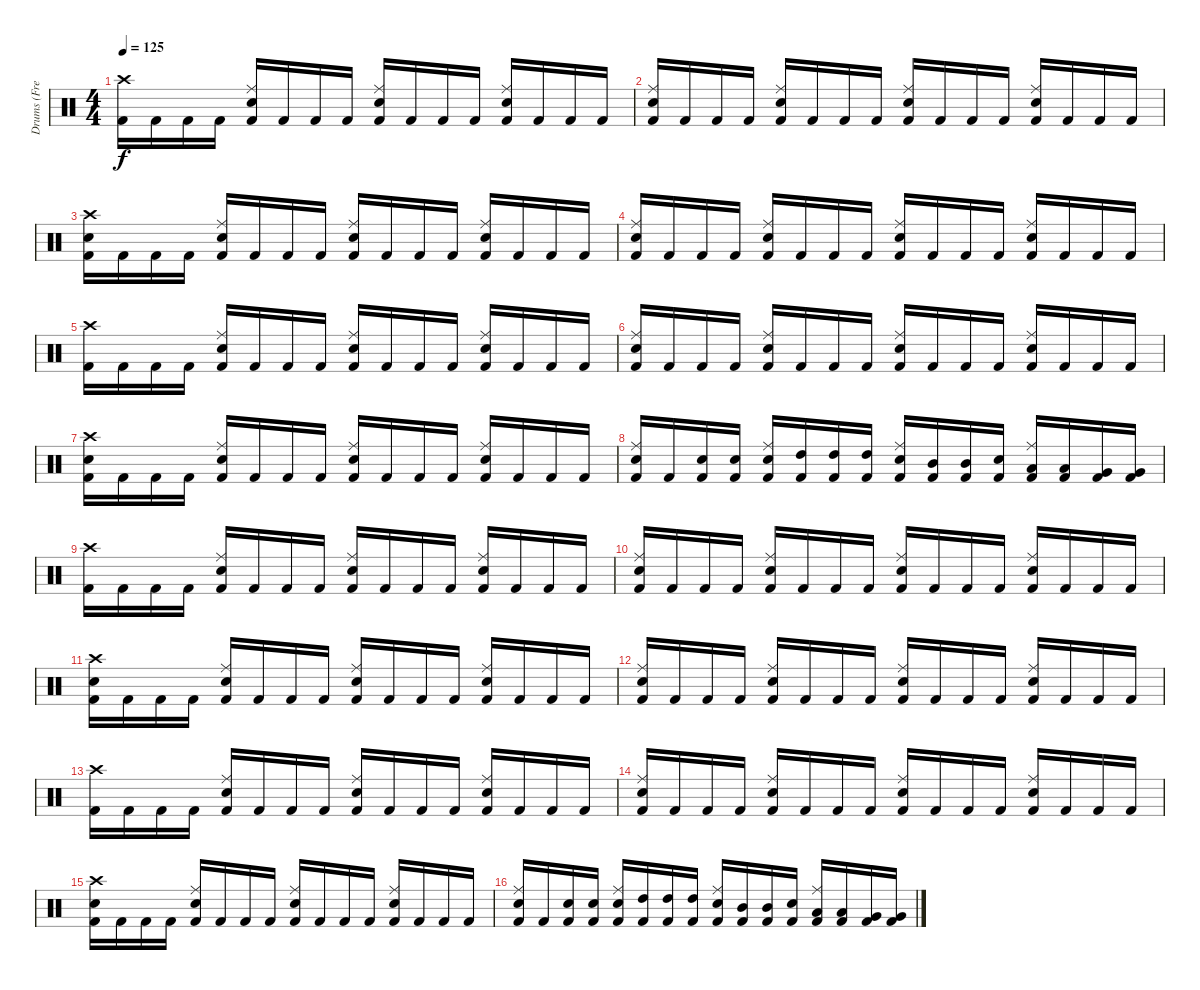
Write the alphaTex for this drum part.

\track ("Drums (Fredrik Andersson)" "Drums (Fre") {instrument percussion}
\staff {score}
\articulation defaults
\ts (4 4)
\tempo 125
\clef neutral
\ks c
("Crash high (hit)" "Kick (hit) 2").16{dy f} "Kick (hit) 2".16 "Kick (hit) 2".16 "Kick (hit) 2".16 ("Ride (middle)" "Snare (hit) 2" "Kick (hit) 2").16 "Kick (hit) 2".16 "Kick (hit) 2".16 "Kick (hit) 2".16 ("Ride (middle)" "Snare (hit) 2" "Kick (hit) 2").16 "Kick (hit) 2".16 "Kick (hit) 2".16 "Kick (hit) 2".16 ("Ride (middle)" "Snare (hit) 2" "Kick (hit) 2").16 "Kick (hit) 2".16 "Kick (hit) 2".16 "Kick (hit) 2".16 |
("Ride (middle)" "Snare (hit) 2" "Kick (hit) 2").16 "Kick (hit) 2".16 "Kick (hit) 2".16 "Kick (hit) 2".16 ("Ride (middle)" "Snare (hit) 2" "Kick (hit) 2").16 "Kick (hit) 2".16 "Kick (hit) 2".16 "Kick (hit) 2".16 ("Ride (middle)" "Snare (hit) 2" "Kick (hit) 2").16 "Kick (hit) 2".16 "Kick (hit) 2".16 "Kick (hit) 2".16 ("Ride (middle)" "Snare (hit) 2" "Kick (hit) 2").16 "Kick (hit) 2".16 "Kick (hit) 2".16 "Kick (hit) 2".16 |
("Crash high (hit)" "Snare (hit) 2" "Kick (hit) 2").16 "Kick (hit) 2".16 "Kick (hit) 2".16 "Kick (hit) 2".16 ("Ride (middle)" "Snare (hit) 2" "Kick (hit) 2").16 "Kick (hit) 2".16 "Kick (hit) 2".16 "Kick (hit) 2".16 ("Ride (middle)" "Snare (hit) 2" "Kick (hit) 2").16 "Kick (hit) 2".16 "Kick (hit) 2".16 "Kick (hit) 2".16 ("Ride (middle)" "Snare (hit) 2" "Kick (hit) 2").16 "Kick (hit) 2".16 "Kick (hit) 2".16 "Kick (hit) 2".16 |
("Ride (middle)" "Snare (hit) 2" "Kick (hit) 2").16 "Kick (hit) 2".16 "Kick (hit) 2".16 "Kick (hit) 2".16 ("Ride (middle)" "Snare (hit) 2" "Kick (hit) 2").16 "Kick (hit) 2".16 "Kick (hit) 2".16 "Kick (hit) 2".16 ("Ride (middle)" "Snare (hit) 2" "Kick (hit) 2").16 "Kick (hit) 2".16 "Kick (hit) 2".16 "Kick (hit) 2".16 ("Ride (middle)" "Snare (hit) 2" "Kick (hit) 2").16 "Kick (hit) 2".16 "Kick (hit) 2".16 "Kick (hit) 2".16 |
("Crash high (hit)" "Kick (hit) 2").16 "Kick (hit) 2".16 "Kick (hit) 2".16 "Kick (hit) 2".16 ("Ride (middle)" "Snare (hit) 2" "Kick (hit) 2").16 "Kick (hit) 2".16 "Kick (hit) 2".16 "Kick (hit) 2".16 ("Ride (middle)" "Snare (hit) 2" "Kick (hit) 2").16 "Kick (hit) 2".16 "Kick (hit) 2".16 "Kick (hit) 2".16 ("Ride (middle)" "Snare (hit) 2" "Kick (hit) 2").16 "Kick (hit) 2".16 "Kick (hit) 2".16 "Kick (hit) 2".16 |
("Ride (middle)" "Snare (hit) 2" "Kick (hit) 2").16 "Kick (hit) 2".16 "Kick (hit) 2".16 "Kick (hit) 2".16 ("Ride (middle)" "Snare (hit) 2" "Kick (hit) 2").16 "Kick (hit) 2".16 "Kick (hit) 2".16 "Kick (hit) 2".16 ("Ride (middle)" "Snare (hit) 2" "Kick (hit) 2").16 "Kick (hit) 2".16 "Kick (hit) 2".16 "Kick (hit) 2".16 ("Ride (middle)" "Snare (hit) 2" "Kick (hit) 2").16 "Kick (hit) 2".16 "Kick (hit) 2".16 "Kick (hit) 2".16 |
("Crash high (hit)" "Snare (hit) 2" "Kick (hit) 2").16 "Kick (hit) 2".16 "Kick (hit) 2".16 "Kick (hit) 2".16 ("Ride (middle)" "Snare (hit) 2" "Kick (hit) 2").16 "Kick (hit) 2".16 "Kick (hit) 2".16 "Kick (hit) 2".16 ("Ride (middle)" "Snare (hit) 2" "Kick (hit) 2").16 "Kick (hit) 2".16 "Kick (hit) 2".16 "Kick (hit) 2".16 ("Ride (middle)" "Snare (hit) 2" "Kick (hit) 2").16 "Kick (hit) 2".16 "Kick (hit) 2".16 "Kick (hit) 2".16 |
("Ride (middle)" "Snare (hit) 2" "Kick (hit) 2").16 "Kick (hit) 2".16 ("Snare (hit) 2" "Kick (hit) 2").16 ("Snare (hit) 2" "Kick (hit) 2").16 ("Ride (middle)" "Snare (hit) 2" "Kick (hit) 2").16 ("High Tom (hit)" "Kick (hit) 2").16 ("High Tom (hit)" "Kick (hit) 2").16 ("High Tom (hit)" "Kick (hit) 2").16 ("Ride (middle)" "Snare (hit) 2" "Kick (hit) 2").16 ("Mid Tom (hit)" "Kick (hit) 2").16 ("Mid Tom (hit)" "Kick (hit) 2").16 ("Snare (hit) 2" "Kick (hit) 2").16 ("Ride (middle)" "Low Tom (hit)" "Kick (hit) 2").16 ("Low Tom (hit)" "Kick (hit) 2").16 ("Very Low Tom (hit)" "Kick (hit) 2").16 ("Very Low Tom (hit)" "Kick (hit) 2").16 |
("Crash high (hit)" "Kick (hit) 2").16 "Kick (hit) 2".16 "Kick (hit) 2".16 "Kick (hit) 2".16 ("Ride (middle)" "Snare (hit) 2" "Kick (hit) 2").16 "Kick (hit) 2".16 "Kick (hit) 2".16 "Kick (hit) 2".16 ("Ride (middle)" "Snare (hit) 2" "Kick (hit) 2").16 "Kick (hit) 2".16 "Kick (hit) 2".16 "Kick (hit) 2".16 ("Ride (middle)" "Snare (hit) 2" "Kick (hit) 2").16 "Kick (hit) 2".16 "Kick (hit) 2".16 "Kick (hit) 2".16 |
("Ride (middle)" "Snare (hit) 2" "Kick (hit) 2").16 "Kick (hit) 2".16 "Kick (hit) 2".16 "Kick (hit) 2".16 ("Ride (middle)" "Snare (hit) 2" "Kick (hit) 2").16 "Kick (hit) 2".16 "Kick (hit) 2".16 "Kick (hit) 2".16 ("Ride (middle)" "Snare (hit) 2" "Kick (hit) 2").16 "Kick (hit) 2".16 "Kick (hit) 2".16 "Kick (hit) 2".16 ("Ride (middle)" "Snare (hit) 2" "Kick (hit) 2").16 "Kick (hit) 2".16 "Kick (hit) 2".16 "Kick (hit) 2".16 |
("Crash high (hit)" "Snare (hit) 2" "Kick (hit) 2").16 "Kick (hit) 2".16 "Kick (hit) 2".16 "Kick (hit) 2".16 ("Ride (middle)" "Snare (hit) 2" "Kick (hit) 2").16 "Kick (hit) 2".16 "Kick (hit) 2".16 "Kick (hit) 2".16 ("Ride (middle)" "Snare (hit) 2" "Kick (hit) 2").16 "Kick (hit) 2".16 "Kick (hit) 2".16 "Kick (hit) 2".16 ("Ride (middle)" "Snare (hit) 2" "Kick (hit) 2").16 "Kick (hit) 2".16 "Kick (hit) 2".16 "Kick (hit) 2".16 |
("Ride (middle)" "Snare (hit) 2" "Kick (hit) 2").16 "Kick (hit) 2".16 "Kick (hit) 2".16 "Kick (hit) 2".16 ("Ride (middle)" "Snare (hit) 2" "Kick (hit) 2").16 "Kick (hit) 2".16 "Kick (hit) 2".16 "Kick (hit) 2".16 ("Ride (middle)" "Snare (hit) 2" "Kick (hit) 2").16 "Kick (hit) 2".16 "Kick (hit) 2".16 "Kick (hit) 2".16 ("Ride (middle)" "Snare (hit) 2" "Kick (hit) 2").16 "Kick (hit) 2".16 "Kick (hit) 2".16 "Kick (hit) 2".16 |
("Crash high (hit)" "Kick (hit) 2").16 "Kick (hit) 2".16 "Kick (hit) 2".16 "Kick (hit) 2".16 ("Ride (middle)" "Snare (hit) 2" "Kick (hit) 2").16 "Kick (hit) 2".16 "Kick (hit) 2".16 "Kick (hit) 2".16 ("Ride (middle)" "Snare (hit) 2" "Kick (hit) 2").16 "Kick (hit) 2".16 "Kick (hit) 2".16 "Kick (hit) 2".16 ("Ride (middle)" "Snare (hit) 2" "Kick (hit) 2").16 "Kick (hit) 2".16 "Kick (hit) 2".16 "Kick (hit) 2".16 |
("Ride (middle)" "Snare (hit) 2" "Kick (hit) 2").16 "Kick (hit) 2".16 "Kick (hit) 2".16 "Kick (hit) 2".16 ("Ride (middle)" "Snare (hit) 2" "Kick (hit) 2").16 "Kick (hit) 2".16 "Kick (hit) 2".16 "Kick (hit) 2".16 ("Ride (middle)" "Snare (hit) 2" "Kick (hit) 2").16 "Kick (hit) 2".16 "Kick (hit) 2".16 "Kick (hit) 2".16 ("Ride (middle)" "Snare (hit) 2" "Kick (hit) 2").16 "Kick (hit) 2".16 "Kick (hit) 2".16 "Kick (hit) 2".16 |
("Crash high (hit)" "Snare (hit) 2" "Kick (hit) 2").16 "Kick (hit) 2".16 "Kick (hit) 2".16 "Kick (hit) 2".16 ("Ride (middle)" "Snare (hit) 2" "Kick (hit) 2").16 "Kick (hit) 2".16 "Kick (hit) 2".16 "Kick (hit) 2".16 ("Ride (middle)" "Snare (hit) 2" "Kick (hit) 2").16 "Kick (hit) 2".16 "Kick (hit) 2".16 "Kick (hit) 2".16 ("Ride (middle)" "Snare (hit) 2" "Kick (hit) 2").16 "Kick (hit) 2".16 "Kick (hit) 2".16 "Kick (hit) 2".16 |
("Ride (middle)" "Snare (hit) 2" "Kick (hit) 2").16 "Kick (hit) 2".16 ("Snare (hit) 2" "Kick (hit) 2").16 ("Snare (hit) 2" "Kick (hit) 2").16 ("Ride (middle)" "Snare (hit) 2" "Kick (hit) 2").16 ("High Tom (hit)" "Kick (hit) 2").16 ("High Tom (hit)" "Kick (hit) 2").16 ("High Tom (hit)" "Kick (hit) 2").16 ("Ride (middle)" "Snare (hit) 2" "Kick (hit) 2").16 ("Mid Tom (hit)" "Kick (hit) 2").16 ("Mid Tom (hit)" "Kick (hit) 2").16 ("Snare (hit) 2" "Kick (hit) 2").16 ("Ride (middle)" "Low Tom (hit)" "Kick (hit) 2").16 ("Low Tom (hit)" "Kick (hit) 2").16 ("Very Low Tom (hit)" "Kick (hit) 2").16 ("Very Low Tom (hit)" "Kick (hit) 2").16
